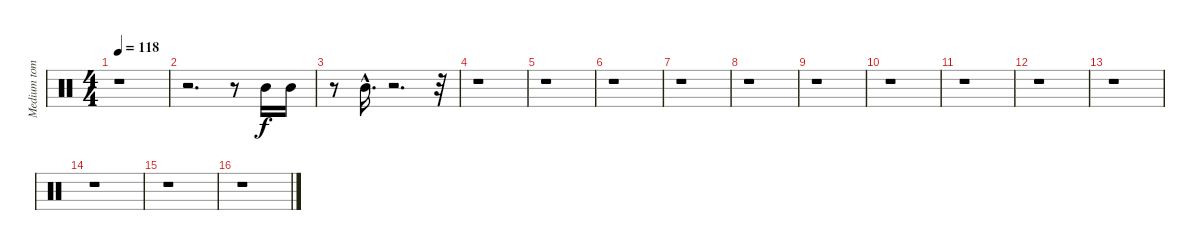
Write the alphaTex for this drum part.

\track ("Medium tom          " "Medium tom") {instrument percussion}
\staff {score}
\articulation defaults
\ts (4 4)
\tempo 118
\clef neutral
\ks c
r.1{dy f} |
r.2{d} r.8 "Mid Tom (hit)".16 "Mid Tom (hit)".16 |
r.8 "Mid Tom (hit)"{hac}.16{d} r.2{d} r.32 |
r.1 |
r.1 |
r.1 |
r.1 |
r.1 |
r.1 |
r.1 |
r.1 |
r.1 |
r.1 |
r.1 |
r.1 |
r.1
